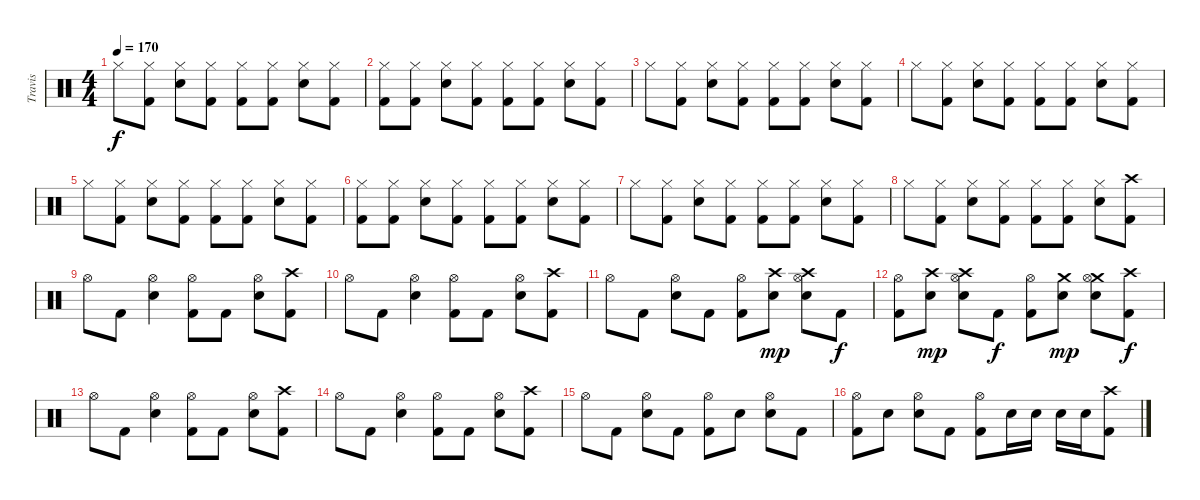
\track ("Travis" "Travis") {instrument percussion}
\staff {score}
\articulation defaults
\ts (4 4)
\tempo 170
\clef neutral
\ks c "Hi-Hat (closed)".8{dy f}
("Hi-Hat (closed)" "Kick (hit) 2").8 ("Hi-Hat (closed)" "Snare (hit) 2").8 ("Hi-Hat (closed)" "Kick (hit) 2").8 ("Hi-Hat (closed)" "Kick (hit) 2").8 ("Hi-Hat (closed)" "Kick (hit) 2").8 ("Hi-Hat (closed)" "Snare (hit) 2").8 ("Hi-Hat (closed)" "Kick (hit) 2").8 |
("Hi-Hat (closed)" "Kick (hit) 2").8 ("Hi-Hat (closed)" "Kick (hit) 2").8 ("Hi-Hat (closed)" "Snare (hit) 2").8 ("Hi-Hat (closed)" "Kick (hit) 2").8 ("Hi-Hat (closed)" "Kick (hit) 2").8 ("Hi-Hat (closed)" "Kick (hit) 2").8 ("Hi-Hat (closed)" "Snare (hit) 2").8 ("Hi-Hat (closed)" "Kick (hit) 2").8 |
"Hi-Hat (closed)".8 ("Hi-Hat (closed)" "Kick (hit) 2").8 ("Hi-Hat (closed)" "Snare (hit) 2").8 ("Hi-Hat (closed)" "Kick (hit) 2").8 ("Hi-Hat (closed)" "Kick (hit) 2").8 ("Hi-Hat (closed)" "Kick (hit) 2").8 ("Hi-Hat (closed)" "Snare (hit) 2").8 ("Hi-Hat (closed)" "Kick (hit) 2").8 |
"Hi-Hat (closed)".8 ("Hi-Hat (closed)" "Kick (hit) 2").8 ("Hi-Hat (closed)" "Snare (hit) 2").8 ("Hi-Hat (closed)" "Kick (hit) 2").8 ("Hi-Hat (closed)" "Kick (hit) 2").8 ("Hi-Hat (closed)" "Kick (hit) 2").8 ("Hi-Hat (closed)" "Snare (hit) 2").8 ("Hi-Hat (closed)" "Kick (hit) 2").8 |
"Hi-Hat (closed)".8 ("Hi-Hat (closed)" "Kick (hit) 2").8 ("Hi-Hat (closed)" "Snare (hit) 2").8 ("Hi-Hat (closed)" "Kick (hit) 2").8 ("Hi-Hat (closed)" "Kick (hit) 2").8 ("Hi-Hat (closed)" "Kick (hit) 2").8 ("Hi-Hat (closed)" "Snare (hit) 2").8 ("Hi-Hat (closed)" "Kick (hit) 2").8 |
("Hi-Hat (closed)" "Kick (hit) 2").8 ("Hi-Hat (closed)" "Kick (hit) 2").8 ("Hi-Hat (closed)" "Snare (hit) 2").8 ("Hi-Hat (closed)" "Kick (hit) 2").8 ("Hi-Hat (closed)" "Kick (hit) 2").8 ("Hi-Hat (closed)" "Kick (hit) 2").8 ("Hi-Hat (closed)" "Snare (hit) 2").8 ("Hi-Hat (closed)" "Kick (hit) 2").8 |
"Hi-Hat (closed)".8 ("Hi-Hat (closed)" "Kick (hit) 2").8 ("Hi-Hat (closed)" "Snare (hit) 2").8 ("Hi-Hat (closed)" "Kick (hit) 2").8 ("Hi-Hat (closed)" "Kick (hit) 2").8 ("Hi-Hat (closed)" "Kick (hit) 2").8 ("Hi-Hat (closed)" "Snare (hit) 2").8 ("Hi-Hat (closed)" "Kick (hit) 2").8 |
"Hi-Hat (closed)".8 ("Hi-Hat (closed)" "Kick (hit) 2").8 ("Hi-Hat (closed)" "Snare (hit) 2").8 ("Hi-Hat (closed)" "Kick (hit) 2").8 ("Hi-Hat (closed)" "Kick (hit) 2").8 ("Hi-Hat (closed)" "Kick (hit) 2").8 ("Hi-Hat (closed)" "Snare (hit) 2").8 ("Crash high (hit)" "Kick (hit) 2").8 |
"Hi-Hat (open)".8 "Kick (hit) 2".8 ("Hi-Hat (open)" "Snare (hit) 2").4 ("Hi-Hat (open)" "Kick (hit) 2").8 "Kick (hit) 2".8 ("Hi-Hat (open)" "Snare (hit) 2").8 ("Crash high (hit)" "Kick (hit) 2").8 |
"Hi-Hat (open)".8 "Kick (hit) 2".8 ("Hi-Hat (open)" "Snare (hit) 2").4 ("Hi-Hat (open)" "Kick (hit) 2").8 "Kick (hit) 2".8 ("Hi-Hat (open)" "Snare (hit) 2").8 ("Crash high (hit)" "Kick (hit) 2").8 |
"Hi-Hat (open)".8 "Kick (hit) 2".8 ("Hi-Hat (open)" "Snare (hit) 2").8 "Kick (hit) 2".8 ("Hi-Hat (open)" "Kick (hit) 2").8 ("Crash high (hit)" "Snare (hit) 2").8{dy mp} ("Crash high (hit)" "Hi-Hat (open)" "Snare (hit) 2").8 "Kick (hit) 2".8{dy f} |
("Hi-Hat (open)" "Kick (hit) 2").8 ("Crash high (hit)" "Snare (hit) 2").8{dy mp} ("Crash high (hit)" "Hi-Hat (open)" "Snare (hit) 2").8 "Kick (hit) 2".8{dy f} ("Hi-Hat (open)" "Kick (hit) 2").8 ("Crash medium (hit)" "Snare (hit) 2").8{dy mp} ("Crash medium (hit)" "Hi-Hat (open)" "Snare (hit) 2").8 ("Crash high (hit)" "Kick (hit) 2").8{dy f} |
"Hi-Hat (open)".8 "Kick (hit) 2".8 ("Hi-Hat (open)" "Snare (hit) 2").4 ("Hi-Hat (open)" "Kick (hit) 2").8 "Kick (hit) 2".8 ("Hi-Hat (open)" "Snare (hit) 2").8 ("Crash high (hit)" "Kick (hit) 2").8 |
"Hi-Hat (open)".8 "Kick (hit) 2".8 ("Hi-Hat (open)" "Snare (hit) 2").4 ("Hi-Hat (open)" "Kick (hit) 2").8 "Kick (hit) 2".8 ("Hi-Hat (open)" "Snare (hit) 2").8 ("Crash high (hit)" "Kick (hit) 2").8 |
"Hi-Hat (open)".8 "Kick (hit) 2".8 ("Hi-Hat (open)" "Snare (hit) 2").8 "Kick (hit) 2".8 ("Hi-Hat (open)" "Kick (hit) 2").8 "Snare (hit) 2".8 ("Hi-Hat (open)" "Snare (hit) 2").8 "Kick (hit) 2".8 |
("Hi-Hat (open)" "Kick (hit) 2").8 "Snare (hit) 2".8 ("Hi-Hat (open)" "Snare (hit) 2").8 "Kick (hit) 2".8 ("Hi-Hat (open)" "Kick (hit) 2").8 "Snare (hit) 2".16 "Snare (hit) 2".16 "Snare (hit) 2".16 "Snare (hit) 2".16 ("Crash high (hit)" "Kick (hit) 2").8
